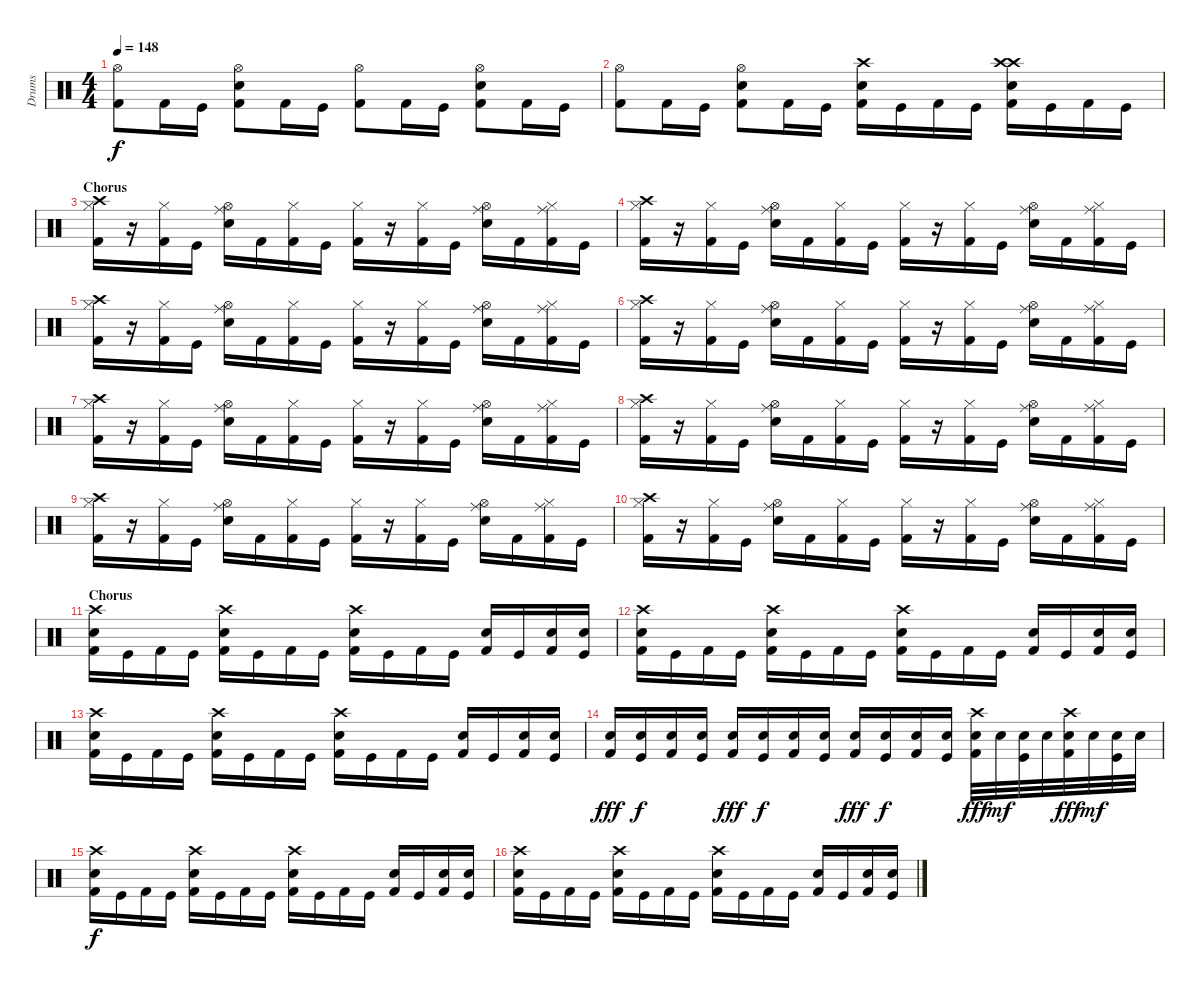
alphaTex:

\track ("Drums" "Drums") {instrument percussion}
\staff {score}
\articulation defaults
\ts (4 4)
\tempo 148
\clef neutral
\ks c
("Hi-Hat (open)" "Kick (hit) 2").8{dy f} "Kick (hit) 2".16 "Kick (hit)".16 ("Hi-Hat (open)" "Snare (hit) 2" "Kick (hit) 2").8 "Kick (hit) 2".16 "Kick (hit)".16 ("Hi-Hat (open)" "Kick (hit) 2").8 "Kick (hit) 2".16 "Kick (hit)".16 ("Hi-Hat (open)" "Snare (hit) 2" "Kick (hit) 2").8 "Kick (hit) 2".16 "Kick (hit)".16 |
("Hi-Hat (open)" "Kick (hit) 2").8 "Kick (hit) 2".16 "Kick (hit)".16 ("Hi-Hat (open)" "Snare (hit) 2" "Kick (hit) 2").8 "Kick (hit) 2".16 "Kick (hit)".16 ("Crash high (hit)" "Snare (hit) 2" "Kick (hit) 2").16 "Kick (hit)".16 "Kick (hit) 2".16 "Kick (hit)".16 ("Crash high (hit)" "Crash high (hit)" "Snare (hit) 2" "Kick (hit) 2").16 "Kick (hit)".16 "Kick (hit) 2".16 "Kick (hit)".16 |
\section ("" "Chorus")
("Hi-Hat (closed)" "Crash high (hit)" "Kick (hit) 2").16 r.16 ("Hi-Hat (closed)" "Kick (hit) 2").16 "Kick (hit)".16 ("Hi-Hat (open)" "Ride (middle)" "Snare (hit) 2").16 "Kick (hit) 2".16 ("Hi-Hat (closed)" "Kick (hit) 2").16 "Kick (hit)".16 ("Hi-Hat (closed)" "Kick (hit) 2").16 r.16 ("Hi-Hat (closed)" "Kick (hit) 2").16 "Kick (hit)".16 ("Hi-Hat (open)" "Ride (middle)" "Snare (hit) 2").16 "Kick (hit) 2".16 ("Hi-Hat (closed)" "Ride (middle)" "Kick (hit) 2").16 "Kick (hit)".16 |
("Hi-Hat (closed)" "Crash high (hit)" "Kick (hit) 2").16 r.16 ("Hi-Hat (closed)" "Kick (hit) 2").16 "Kick (hit)".16 ("Hi-Hat (open)" "Ride (middle)" "Snare (hit) 2").16 "Kick (hit) 2".16 ("Hi-Hat (closed)" "Kick (hit) 2").16 "Kick (hit)".16 ("Hi-Hat (closed)" "Kick (hit) 2").16 r.16 ("Hi-Hat (closed)" "Kick (hit) 2").16 "Kick (hit)".16 ("Hi-Hat (open)" "Ride (middle)" "Snare (hit) 2").16 "Kick (hit) 2".16 ("Hi-Hat (closed)" "Ride (middle)" "Kick (hit) 2").16 "Kick (hit)".16 |
("Hi-Hat (closed)" "Crash high (hit)" "Kick (hit) 2").16 r.16 ("Hi-Hat (closed)" "Kick (hit) 2").16 "Kick (hit)".16 ("Hi-Hat (open)" "Ride (middle)" "Snare (hit) 2").16 "Kick (hit) 2".16 ("Hi-Hat (closed)" "Kick (hit) 2").16 "Kick (hit)".16 ("Hi-Hat (closed)" "Kick (hit) 2").16 r.16 ("Hi-Hat (closed)" "Kick (hit) 2").16 "Kick (hit)".16 ("Hi-Hat (open)" "Ride (middle)" "Snare (hit) 2").16 "Kick (hit) 2".16 ("Hi-Hat (closed)" "Ride (middle)" "Kick (hit) 2").16 "Kick (hit)".16 |
("Hi-Hat (closed)" "Crash high (hit)" "Kick (hit) 2").16 r.16 ("Hi-Hat (closed)" "Kick (hit) 2").16 "Kick (hit)".16 ("Hi-Hat (open)" "Ride (middle)" "Snare (hit) 2").16 "Kick (hit) 2".16 ("Hi-Hat (closed)" "Kick (hit) 2").16 "Kick (hit)".16 ("Hi-Hat (closed)" "Kick (hit) 2").16 r.16 ("Hi-Hat (closed)" "Kick (hit) 2").16 "Kick (hit)".16 ("Hi-Hat (open)" "Ride (middle)" "Snare (hit) 2").16 "Kick (hit) 2".16 ("Hi-Hat (closed)" "Ride (middle)" "Kick (hit) 2").16 "Kick (hit)".16 |
("Hi-Hat (closed)" "Crash high (hit)" "Kick (hit) 2").16 r.16 ("Hi-Hat (closed)" "Kick (hit) 2").16 "Kick (hit)".16 ("Hi-Hat (open)" "Ride (middle)" "Snare (hit) 2").16 "Kick (hit) 2".16 ("Hi-Hat (closed)" "Kick (hit) 2").16 "Kick (hit)".16 ("Hi-Hat (closed)" "Kick (hit) 2").16 r.16 ("Hi-Hat (closed)" "Kick (hit) 2").16 "Kick (hit)".16 ("Hi-Hat (open)" "Ride (middle)" "Snare (hit) 2").16 "Kick (hit) 2".16 ("Hi-Hat (closed)" "Ride (middle)" "Kick (hit) 2").16 "Kick (hit)".16 |
("Hi-Hat (closed)" "Crash high (hit)" "Kick (hit) 2").16 r.16 ("Hi-Hat (closed)" "Kick (hit) 2").16 "Kick (hit)".16 ("Hi-Hat (open)" "Ride (middle)" "Snare (hit) 2").16 "Kick (hit) 2".16 ("Hi-Hat (closed)" "Kick (hit) 2").16 "Kick (hit)".16 ("Hi-Hat (closed)" "Kick (hit) 2").16 r.16 ("Hi-Hat (closed)" "Kick (hit) 2").16 "Kick (hit)".16 ("Hi-Hat (open)" "Ride (middle)" "Snare (hit) 2").16 "Kick (hit) 2".16 ("Hi-Hat (closed)" "Ride (middle)" "Kick (hit) 2").16 "Kick (hit)".16 |
("Hi-Hat (closed)" "Crash high (hit)" "Kick (hit) 2").16 r.16 ("Hi-Hat (closed)" "Kick (hit) 2").16 "Kick (hit)".16 ("Hi-Hat (open)" "Ride (middle)" "Snare (hit) 2").16 "Kick (hit) 2".16 ("Hi-Hat (closed)" "Kick (hit) 2").16 "Kick (hit)".16 ("Hi-Hat (closed)" "Kick (hit) 2").16 r.16 ("Hi-Hat (closed)" "Kick (hit) 2").16 "Kick (hit)".16 ("Hi-Hat (open)" "Ride (middle)" "Snare (hit) 2").16 "Kick (hit) 2".16 ("Hi-Hat (closed)" "Ride (middle)" "Kick (hit) 2").16 "Kick (hit)".16 |
("Hi-Hat (closed)" "Crash high (hit)" "Kick (hit) 2").16 r.16 ("Hi-Hat (closed)" "Kick (hit) 2").16 "Kick (hit)".16 ("Hi-Hat (open)" "Ride (middle)" "Snare (hit) 2").16 "Kick (hit) 2".16 ("Hi-Hat (closed)" "Kick (hit) 2").16 "Kick (hit)".16 ("Hi-Hat (closed)" "Kick (hit) 2").16 r.16 ("Hi-Hat (closed)" "Kick (hit) 2").16 "Kick (hit)".16 ("Hi-Hat (open)" "Ride (middle)" "Snare (hit) 2").16 "Kick (hit) 2".16 ("Hi-Hat (closed)" "Ride (middle)" "Kick (hit) 2").16 "Kick (hit)".16 |
\section ("" "Chorus")
("Crash high (hit)" "Snare (hit) 2" "Kick (hit) 2").16 "Kick (hit)".16 "Kick (hit) 2".16 "Kick (hit)".16 ("Crash high (hit)" "Snare (hit) 2" "Kick (hit) 2").16 "Kick (hit)".16 "Kick (hit) 2".16 "Kick (hit)".16 ("Crash high (hit)" "Snare (hit) 2" "Kick (hit) 2").16 "Kick (hit)".16 "Kick (hit) 2".16 "Kick (hit)".16 ("Snare (hit) 2" "Kick (hit) 2").16 "Kick (hit)".16 ("Snare (hit) 2" "Kick (hit) 2").16 ("Snare (hit) 2" "Kick (hit)").16 |
("Crash high (hit)" "Snare (hit) 2" "Kick (hit) 2").16 "Kick (hit)".16 "Kick (hit) 2".16 "Kick (hit)".16 ("Crash high (hit)" "Snare (hit) 2" "Kick (hit) 2").16 "Kick (hit)".16 "Kick (hit) 2".16 "Kick (hit)".16 ("Crash high (hit)" "Snare (hit) 2" "Kick (hit) 2").16 "Kick (hit)".16 "Kick (hit) 2".16 "Kick (hit)".16 ("Snare (hit) 2" "Kick (hit) 2").16 "Kick (hit)".16 ("Snare (hit) 2" "Kick (hit) 2").16 ("Snare (hit) 2" "Kick (hit)").16 |
("Crash high (hit)" "Snare (hit) 2" "Kick (hit) 2").16 "Kick (hit)".16 "Kick (hit) 2".16 "Kick (hit)".16 ("Crash high (hit)" "Snare (hit) 2" "Kick (hit) 2").16 "Kick (hit)".16 "Kick (hit) 2".16 "Kick (hit)".16 ("Crash high (hit)" "Snare (hit) 2" "Kick (hit) 2").16 "Kick (hit)".16 "Kick (hit) 2".16 "Kick (hit)".16 ("Snare (hit) 2" "Kick (hit) 2").16 "Kick (hit)".16 ("Snare (hit) 2" "Kick (hit) 2").16 ("Snare (hit) 2" "Kick (hit)").16 |
("Snare (hit) 2" "Kick (hit) 2").16{dy fff} ("Snare (hit) 2" "Kick (hit)").16{dy f} ("Snare (hit) 2" "Kick (hit) 2").16 ("Snare (hit) 2" "Kick (hit)").16 ("Snare (hit) 2" "Kick (hit) 2").16{dy fff} ("Snare (hit) 2" "Kick (hit)").16{dy f} ("Snare (hit) 2" "Kick (hit) 2").16 ("Snare (hit) 2" "Kick (hit)").16 ("Snare (hit) 2" "Kick (hit) 2").16{dy fff} ("Snare (hit) 2" "Kick (hit)").16{dy f} ("Snare (hit) 2" "Kick (hit) 2").16 ("Snare (hit) 2" "Kick (hit)").16 ("Crash high (hit)" "Snare (hit) 2" "Kick (hit) 2").32{dy fff} "Snare (hit) 2".32{dy mf} ("Snare (hit) 2" "Kick (hit)").32 "Snare (hit) 2".32 ("Crash high (hit)" "Snare (hit) 2" "Kick (hit) 2").32{dy fff} "Snare (hit) 2".32{dy mf} ("Snare (hit) 2" "Kick (hit)").32 "Snare (hit) 2".32 |
("Crash high (hit)" "Snare (hit) 2" "Kick (hit) 2").16{dy f} "Kick (hit)".16 "Kick (hit) 2".16 "Kick (hit)".16 ("Crash high (hit)" "Snare (hit) 2" "Kick (hit) 2").16 "Kick (hit)".16 "Kick (hit) 2".16 "Kick (hit)".16 ("Crash high (hit)" "Snare (hit) 2" "Kick (hit) 2").16 "Kick (hit)".16 "Kick (hit) 2".16 "Kick (hit)".16 ("Snare (hit) 2" "Kick (hit) 2").16 "Kick (hit)".16 ("Snare (hit) 2" "Kick (hit) 2").16 ("Snare (hit) 2" "Kick (hit)").16 |
("Crash high (hit)" "Snare (hit) 2" "Kick (hit) 2").16 "Kick (hit)".16 "Kick (hit) 2".16 "Kick (hit)".16 ("Crash high (hit)" "Snare (hit) 2" "Kick (hit) 2").16 "Kick (hit)".16 "Kick (hit) 2".16 "Kick (hit)".16 ("Crash high (hit)" "Snare (hit) 2" "Kick (hit) 2").16 "Kick (hit)".16 "Kick (hit) 2".16 "Kick (hit)".16 ("Snare (hit) 2" "Kick (hit) 2").16 "Kick (hit)".16 ("Snare (hit) 2" "Kick (hit) 2").16 ("Snare (hit) 2" "Kick (hit)").16
